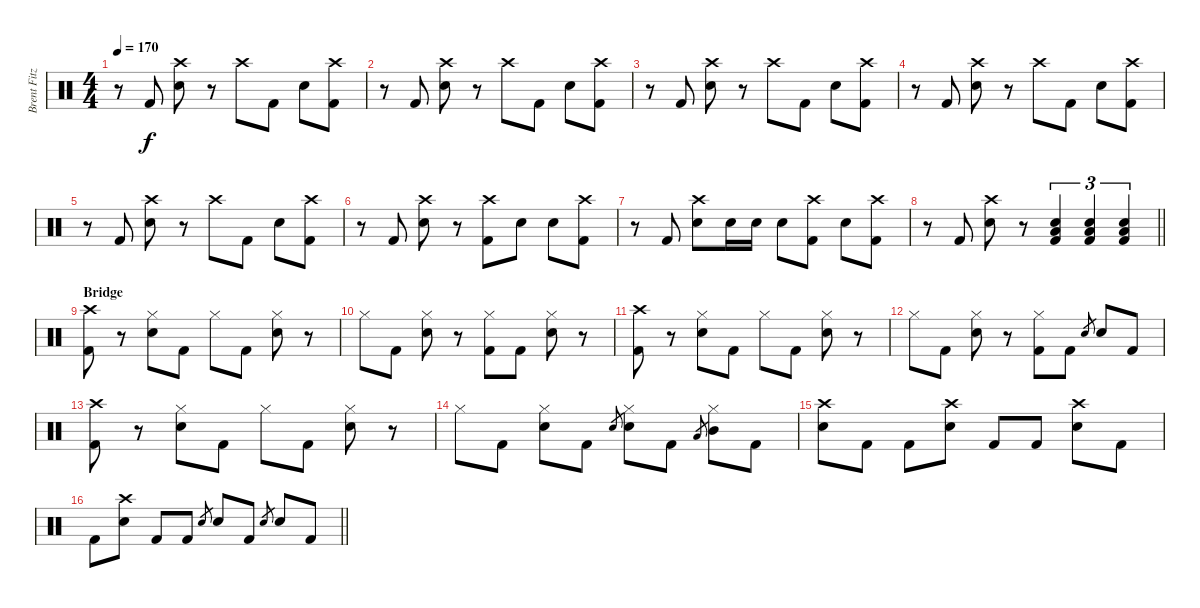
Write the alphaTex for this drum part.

\track ("Brent Fitz" "Brent Fitz") {instrument percussion}
\staff {score}
\articulation defaults
\ts (4 4)
\tempo 170
\clef neutral
\ks c
r.8{dy f} "Kick (hit) 2".8 ("Crash high (hit)" "Electric Snare (hit)").8 r.8 "Crash high (hit)".8 "Kick (hit) 2".8 "Electric Snare (hit)".8 ("Crash high (hit)" "Kick (hit) 2").8 |
r.8 "Kick (hit) 2".8 ("Crash high (hit)" "Electric Snare (hit)").8 r.8 "Crash high (hit)".8 "Kick (hit) 2".8 "Electric Snare (hit)".8 ("Crash high (hit)" "Kick (hit) 2").8 |
r.8 "Kick (hit) 2".8 ("Crash high (hit)" "Electric Snare (hit)").8 r.8 "Crash high (hit)".8 "Kick (hit) 2".8 "Electric Snare (hit)".8 ("Crash high (hit)" "Kick (hit) 2").8 |
r.8 "Kick (hit) 2".8 ("Crash high (hit)" "Electric Snare (hit)").8 r.8 "Crash high (hit)".8 "Kick (hit) 2".8 "Electric Snare (hit)".8 ("Crash high (hit)" "Kick (hit) 2").8 |
r.8 "Kick (hit) 2".8 ("Crash high (hit)" "Electric Snare (hit)").8 r.8 "Crash high (hit)".8 "Kick (hit) 2".8 "Electric Snare (hit)".8 ("Crash high (hit)" "Kick (hit) 2").8 |
r.8 "Kick (hit) 2".8 ("Crash high (hit)" "Electric Snare (hit)").8 r.8 ("Crash high (hit)" "Kick (hit) 2").8 "Electric Snare (hit)".8 "Electric Snare (hit)".8 ("Crash high (hit)" "Kick (hit) 2").8 |
r.8 "Kick (hit) 2".8 ("Crash high (hit)" "Electric Snare (hit)").8 "Electric Snare (hit)".16 "Electric Snare (hit)".16 "Electric Snare (hit)".8 ("Crash high (hit)" "Kick (hit) 2").8 "Electric Snare (hit)".8 ("Crash high (hit)" "Kick (hit) 2").8 |
\barLineRight lightlight
r.8 "Kick (hit) 2".8 ("Crash high (hit)" "Electric Snare (hit)").8 r.8 ("Electric Snare (hit)" "Low Tom (hit)" "Kick (hit) 2").4{tu (3 2)} ("Electric Snare (hit)" "Low Tom (hit)" "Kick (hit) 2").4{tu (3 2)} ("Electric Snare (hit)" "Low Tom (hit)" "Kick (hit) 2").4{tu (3 2)} |
\section ("" "Bridge")
("Crash high (hit)" "Kick (hit) 2").8 r.8 ("Hi-Hat (closed)" "Electric Snare (hit)").8 "Kick (hit) 2".8 "Hi-Hat (closed)".8 "Kick (hit) 2".8 ("Hi-Hat (closed)" "Electric Snare (hit)").8 r.8 |
"Hi-Hat (closed)".8 "Kick (hit) 2".8 ("Hi-Hat (closed)" "Electric Snare (hit)").8 r.8 ("Hi-Hat (closed)" "Kick (hit) 2").8 "Kick (hit) 2".8 ("Hi-Hat (closed)" "Electric Snare (hit)").8 r.8 |
("Crash high (hit)" "Kick (hit) 2").8 r.8 ("Hi-Hat (closed)" "Electric Snare (hit)").8 "Kick (hit) 2".8 "Hi-Hat (closed)".8 "Kick (hit) 2".8 ("Hi-Hat (closed)" "Electric Snare (hit)").8 r.8 |
"Hi-Hat (closed)".8 "Kick (hit) 2".8 ("Hi-Hat (closed)" "Electric Snare (hit)").8 r.8 ("Hi-Hat (closed)" "Kick (hit) 2").8 "Kick (hit) 2".8 "Electric Snare (hit)".8{gr} "Electric Snare (hit)".8 "Kick (hit) 2".8 |
("Crash high (hit)" "Kick (hit) 2").8 r.8 ("Hi-Hat (closed)" "Electric Snare (hit)").8 "Kick (hit) 2".8 "Hi-Hat (closed)".8 "Kick (hit) 2".8 ("Hi-Hat (closed)" "Electric Snare (hit)").8 r.8 |
"Hi-Hat (closed)".8 "Kick (hit) 2".8 ("Hi-Hat (closed)" "Electric Snare (hit)").8 "Kick (hit) 2".8 "Electric Snare (hit)".8{gr} ("Hi-Hat (closed)" "Electric Snare (hit)").8 "Kick (hit) 2".8 "Low Tom (hit)".8{gr} ("Hi-Hat (closed)" "Mid Tom (hit)").8 "Kick (hit) 2".8 |
("Crash high (hit)" "Electric Snare (hit)").8 "Kick (hit) 2".8 "Kick (hit) 2".8 ("Crash high (hit)" "Electric Snare (hit)").8 "Kick (hit) 2".8 "Kick (hit) 2".8 ("Crash high (hit)" "Electric Snare (hit)").8 "Kick (hit) 2".8 |
\barLineRight lightlight "Kick (hit) 2".8
("Crash high (hit)" "Electric Snare (hit)").8 "Kick (hit) 2".8 "Kick (hit) 2".8 "Electric Snare (hit)".8{gr} "Electric Snare (hit)".8 "Kick (hit) 2".8 "Electric Snare (hit)".8{gr} "Electric Snare (hit)".8 "Kick (hit) 2".8
